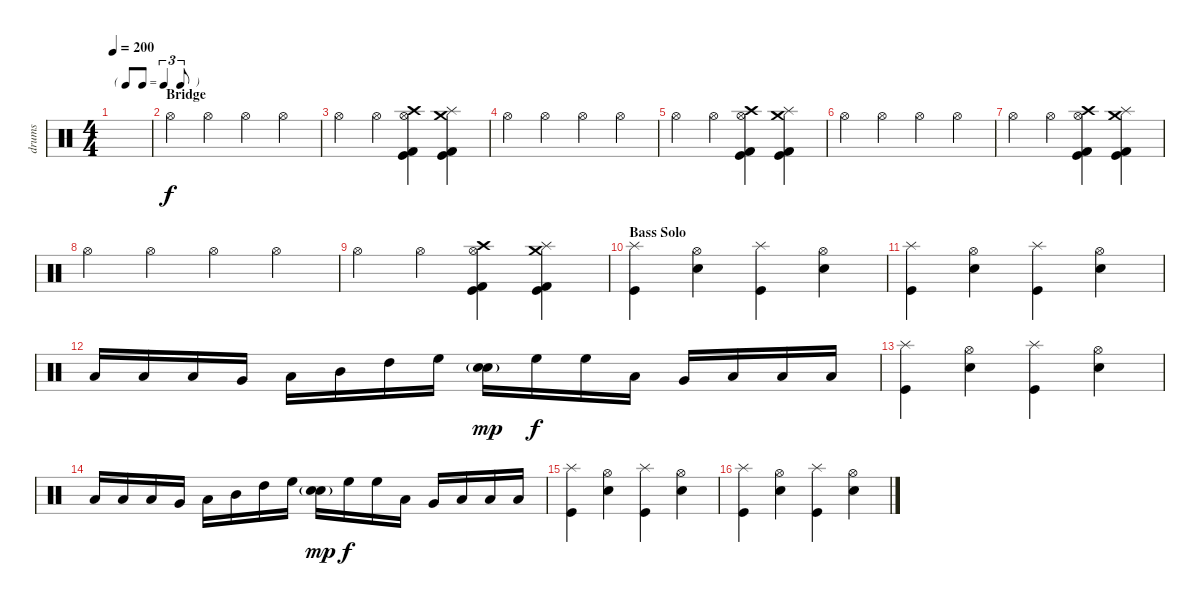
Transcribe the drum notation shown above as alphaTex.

\track ("drums" "drums") {instrument percussion}
\staff {score}
\articulation defaults
\ts (4 4)
\tf triplet8th
\tempo 200
\clef neutral
\ks c
|
\section ("" "Bridge")
"Hi-Hat (open)".4 "Hi-Hat (open)".4 "Hi-Hat (open)".4 "Hi-Hat (open)".4 |
"Hi-Hat (open)".4 "Hi-Hat (open)".4 ("Crash high (hit)" "Hi-Hat (open)" "Kick (hit)" "Kick (hit) 2").4 ("Crash medium (hit)" "Splash (hit)" "Kick (hit) 2" "Kick (hit)").4 |
"Hi-Hat (open)".4 "Hi-Hat (open)".4 "Hi-Hat (open)".4 "Hi-Hat (open)".4 |
"Hi-Hat (open)".4 "Hi-Hat (open)".4 ("Crash high (hit)" "Hi-Hat (open)" "Kick (hit)" "Kick (hit) 2").4 ("Crash medium (hit)" "Splash (hit)" "Kick (hit) 2" "Kick (hit)").4 |
"Hi-Hat (open)".4 "Hi-Hat (open)".4 "Hi-Hat (open)".4 "Hi-Hat (open)".4 |
"Hi-Hat (open)".4 "Hi-Hat (open)".4 ("Crash high (hit)" "Hi-Hat (open)" "Kick (hit)" "Kick (hit) 2").4 ("Crash medium (hit)" "Splash (hit)" "Kick (hit) 2" "Kick (hit)").4 |
"Hi-Hat (open)".4 "Hi-Hat (open)".4 "Hi-Hat (open)".4 "Hi-Hat (open)".4 |
"Hi-Hat (open)".4 "Hi-Hat (open)".4 ("Crash high (hit)" "Hi-Hat (open)" "Kick (hit)" "Kick (hit) 2").4 ("Crash medium (hit)" "Splash (hit)" "Kick (hit) 2" "Kick (hit)").4 |
\section ("" "Bass Solo")
("Splash (hit)" "Kick (hit)").4 ("Hi-Hat (open)" "Snare (hit) 2").4 ("Splash (hit)" "Kick (hit)").4 ("Hi-Hat (open)" "Snare (hit) 2").4 |
("Splash (hit)" "Kick (hit)").4 ("Hi-Hat (open)" "Snare (hit) 2").4 ("Splash (hit)" "Kick (hit)").4 ("Hi-Hat (open)" "Snare (hit) 2").4 |
"Low Floor Tom (hit)".16 "Low Floor Tom (hit)".16 "Low Floor Tom (hit)".16 "Very Low Tom (hit)".16 "Low Tom (hit)".16 "Mid Tom (hit)".16 "High Tom (hit)".16 "High Floor Tom (hit)".16 ("Electric Snare (hit)" "Snare (hit) 2"{g}).16{dy mp} "High Floor Tom (hit)".16{dy f} "High Floor Tom (hit)".16 "Low Tom (hit)".16 "Very Low Tom (hit)".16 "Low Floor Tom (hit)".16 "Low Floor Tom (hit)".16 "Low Floor Tom (hit)".16 |
("Splash (hit)" "Kick (hit)").4 ("Hi-Hat (open)" "Snare (hit) 2").4 ("Splash (hit)" "Kick (hit)").4 ("Hi-Hat (open)" "Snare (hit) 2").4 |
"Low Floor Tom (hit)".16 "Low Floor Tom (hit)".16 "Low Floor Tom (hit)".16 "Very Low Tom (hit)".16 "Low Tom (hit)".16 "Mid Tom (hit)".16 "High Tom (hit)".16 "High Floor Tom (hit)".16 ("Electric Snare (hit)" "Snare (hit) 2"{g}).16{dy mp} "High Floor Tom (hit)".16{dy f} "High Floor Tom (hit)".16 "Low Tom (hit)".16 "Very Low Tom (hit)".16 "Low Floor Tom (hit)".16 "Low Floor Tom (hit)".16 "Low Floor Tom (hit)".16 |
("Splash (hit)" "Kick (hit)").4 ("Hi-Hat (open)" "Snare (hit) 2").4 ("Splash (hit)" "Kick (hit)").4 ("Hi-Hat (open)" "Snare (hit) 2").4 |
("Splash (hit)" "Kick (hit)").4 ("Hi-Hat (open)" "Snare (hit) 2").4 ("Splash (hit)" "Kick (hit)").4 ("Hi-Hat (open)" "Snare (hit) 2").4
